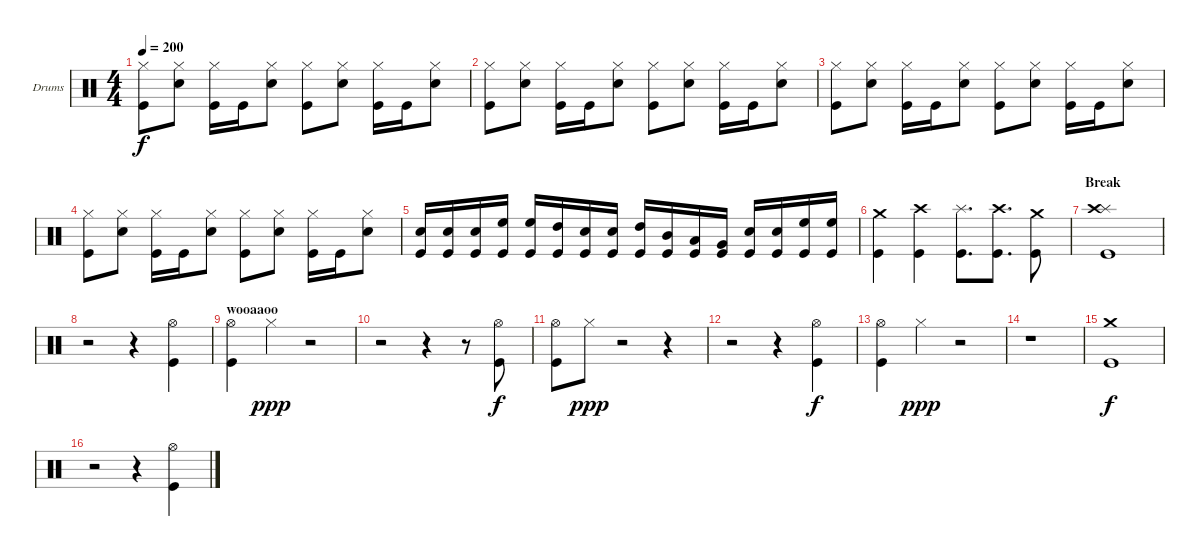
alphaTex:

\bracketExtendMode groupsimilarinstruments
\firstSystemTrackNameOrientation horizontal
\otherSystemsTrackNameOrientation horizontal
\track ("Drumkit" "Drums") {instrument percussion}
\staff {score}
\articulation defaults
\ts (4 4)
\tempo 200
\clef neutral
\ks aminor
("Kick (hit)" "Hi-Hat (closed)").8{dy f} ("Snare (hit) 2" "Hi-Hat (closed)").8 ("Kick (hit)" "Hi-Hat (closed)").16 "Kick (hit)".16 ("Snare (hit) 2" "Hi-Hat (closed)").8 ("Kick (hit)" "Hi-Hat (closed)").8 ("Snare (hit) 2" "Hi-Hat (closed)").8 ("Kick (hit)" "Hi-Hat (closed)").16 "Kick (hit)".16 ("Snare (hit) 2" "Hi-Hat (closed)").8 |
("Kick (hit)" "Hi-Hat (closed)").8 ("Snare (hit) 2" "Hi-Hat (closed)").8 ("Kick (hit)" "Hi-Hat (closed)").16 "Kick (hit)".16 ("Snare (hit) 2" "Hi-Hat (closed)").8 ("Kick (hit)" "Hi-Hat (closed)").8 ("Snare (hit) 2" "Hi-Hat (closed)").8 ("Kick (hit)" "Hi-Hat (closed)").16 "Kick (hit)".16 ("Snare (hit) 2" "Hi-Hat (closed)").8 |
("Kick (hit)" "Hi-Hat (closed)").8 ("Snare (hit) 2" "Hi-Hat (closed)").8 ("Kick (hit)" "Hi-Hat (closed)").16 "Kick (hit)".16 ("Snare (hit) 2" "Hi-Hat (closed)").8 ("Kick (hit)" "Hi-Hat (closed)").8 ("Snare (hit) 2" "Hi-Hat (closed)").8 ("Kick (hit)" "Hi-Hat (closed)").16 "Kick (hit)".16 ("Snare (hit) 2" "Hi-Hat (closed)").8 |
("Kick (hit)" "Hi-Hat (closed)").8 ("Snare (hit) 2" "Hi-Hat (closed)").8 ("Kick (hit)" "Hi-Hat (closed)").16 "Kick (hit)".16 ("Snare (hit) 2" "Hi-Hat (closed)").8 ("Kick (hit)" "Hi-Hat (closed)").8 ("Snare (hit) 2" "Hi-Hat (closed)").8 ("Kick (hit)" "Hi-Hat (closed)").16 "Kick (hit)".16 ("Snare (hit) 2" "Hi-Hat (closed)").8 |
("Kick (hit)" "Snare (hit) 2").16 ("Kick (hit)" "Snare (hit) 2").16 ("Kick (hit)" "Snare (hit) 2").16 ("Kick (hit)" "High Floor Tom (hit)").16 ("Kick (hit)" "High Floor Tom (hit)").16 ("Kick (hit)" "High Tom (hit)").16 ("Kick (hit)" "Snare (hit) 2").16 ("Kick (hit)" "Snare (hit) 2").16 ("Kick (hit)" "High Tom (hit)").16 ("Kick (hit)" "Mid Tom (hit)").16 ("Kick (hit)" "Low Tom (hit)").16 ("Kick (hit)" "Very Low Tom (hit)").16 ("Kick (hit)" "Snare (hit) 2").16 ("Kick (hit)" "Snare (hit) 2").16 ("Kick (hit)" "High Floor Tom (hit)").16 ("Kick (hit)" "High Floor Tom (hit)").16 |
("Kick (hit)" "Crash medium (hit)").4 ("Kick (hit)" "Crash high (hit)").4 ("Kick (hit)" "Splash (hit)").8{d} ("Kick (hit)" "Crash high (hit)").8{d} ("Kick (hit)" "Crash medium (hit)").8 |
\section ("" "Break")
("Kick (hit)" "Splash (hit)" "Crash high (hit)").1 |
r.2 r.4 ("Kick (hit)" "Hi-Hat (open)").4 |
\section ("" "wooaaoo")
("Kick (hit)" "Hi-Hat (open)").4 "Hi-Hat (closed)".4{dy ppp} r.2 |
r.2 r.4 r.8 ("Kick (hit)" "Hi-Hat (open)").8{dy f} |
("Kick (hit)" "Hi-Hat (open)").8 "Hi-Hat (closed)".8{dy ppp} r.2 r.4 |
r.2 r.4 ("Kick (hit)" "Hi-Hat (open)").4{dy f} |
("Kick (hit)" "Hi-Hat (open)").4 "Hi-Hat (closed)".4{dy ppp} r.2 |
r.1 |
("Kick (hit)" "Crash medium (hit)").1{dy f} |
r.2 r.4 ("Kick (hit)" "Hi-Hat (open)").4
